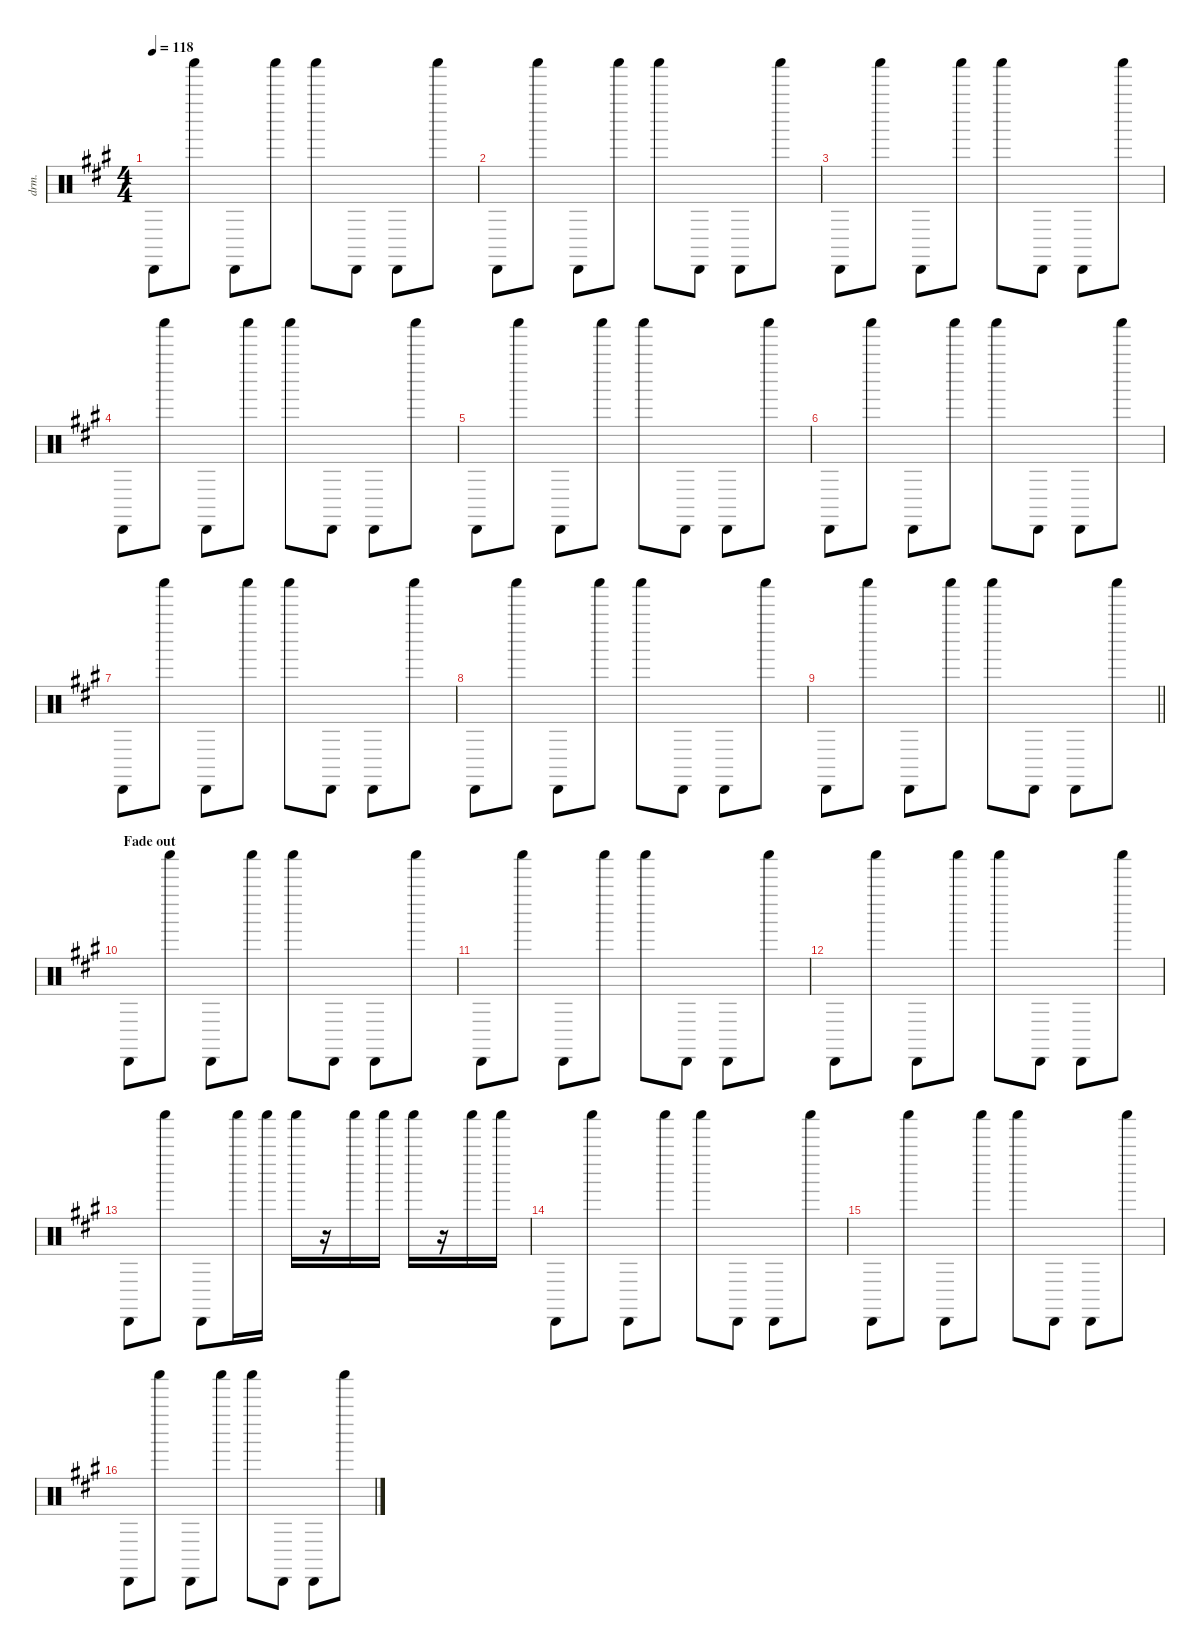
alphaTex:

\defaultSystemsLayout 4
\hideDynamics
\bracketExtendMode nobrackets
\otherSystemsTrackNameOrientation horizontal
\track ("shaker" "drm.") {instrument percussion}
\staff {score}
\articulation defaults
\ts (4 4)
\tempo 118
\clef neutral
\ks f#minor "Cabasa (hit)"{acc forcenatural}.8{dy f} "Shaker (hit)"{acc forcenatural}.8 "Cabasa (hit)"{acc forcenatural}.8{dy mp} "Shaker (hit)"{acc forcenatural}.8{dy f} "Shaker (hit)"{acc forcenatural}.8{dy p} "Cabasa (hit)"{acc forcenatural}.8{dy f} "Cabasa (hit)"{acc forcenatural}.8 "Shaker (hit)"{acc forcenatural}.8
|
"Cabasa (hit)"{acc forcenatural}.8 "Shaker (hit)"{acc forcenatural}.8 "Cabasa (hit)"{acc forcenatural}.8{dy mp} "Shaker (hit)"{acc forcenatural}.8{dy f} "Shaker (hit)"{acc forcenatural}.8{dy p} "Cabasa (hit)"{acc forcenatural}.8{dy f} "Cabasa (hit)"{acc forcenatural}.8 "Shaker (hit)"{acc forcenatural}.8 |
"Cabasa (hit)"{acc forcenatural}.8 "Shaker (hit)"{acc forcenatural}.8 "Cabasa (hit)"{acc forcenatural}.8{dy mp} "Shaker (hit)"{acc forcenatural}.8{dy f} "Shaker (hit)"{acc forcenatural}.8{dy p} "Cabasa (hit)"{acc forcenatural}.8{dy f} "Cabasa (hit)"{acc forcenatural}.8 "Shaker (hit)"{acc forcenatural}.8 |
"Cabasa (hit)"{acc forcenatural}.8 "Shaker (hit)"{acc forcenatural}.8 "Cabasa (hit)"{acc forcenatural}.8{dy mp} "Shaker (hit)"{acc forcenatural}.8{dy f} "Shaker (hit)"{acc forcenatural}.8{dy p} "Cabasa (hit)"{acc forcenatural}.8{dy f} "Cabasa (hit)"{acc forcenatural}.8 "Shaker (hit)"{acc forcenatural}.8 |
"Cabasa (hit)"{acc forcenatural}.8 "Shaker (hit)"{acc forcenatural}.8 "Cabasa (hit)"{acc forcenatural}.8{dy mp} "Shaker (hit)"{acc forcenatural}.8{dy f} "Shaker (hit)"{acc forcenatural}.8{dy p} "Cabasa (hit)"{acc forcenatural}.8{dy f} "Cabasa (hit)"{acc forcenatural}.8 "Shaker (hit)"{acc forcenatural}.8 |
"Cabasa (hit)"{acc forcenatural}.8 "Shaker (hit)"{acc forcenatural}.8 "Cabasa (hit)"{acc forcenatural}.8{dy mp} "Shaker (hit)"{acc forcenatural}.8{dy f} "Shaker (hit)"{acc forcenatural}.8{dy p} "Cabasa (hit)"{acc forcenatural}.8{dy f} "Cabasa (hit)"{acc forcenatural}.8 "Shaker (hit)"{acc forcenatural}.8 |
"Cabasa (hit)"{acc forcenatural}.8 "Shaker (hit)"{acc forcenatural}.8 "Cabasa (hit)"{acc forcenatural}.8{dy mp} "Shaker (hit)"{acc forcenatural}.8{dy f} "Shaker (hit)"{acc forcenatural}.8{dy p} "Cabasa (hit)"{acc forcenatural}.8{dy f} "Cabasa (hit)"{acc forcenatural}.8 "Shaker (hit)"{acc forcenatural}.8 |
"Cabasa (hit)"{acc forcenatural}.8 "Shaker (hit)"{acc forcenatural}.8 "Cabasa (hit)"{acc forcenatural}.8{dy mp} "Shaker (hit)"{acc forcenatural}.8{dy f} "Shaker (hit)"{acc forcenatural}.8{dy p} "Cabasa (hit)"{acc forcenatural}.8{dy f} "Cabasa (hit)"{acc forcenatural}.8 "Shaker (hit)"{acc forcenatural}.8 |
\barLineRight lightlight "Cabasa (hit)"{acc forcenatural}.8 "Shaker (hit)"{acc forcenatural}.8 "Cabasa (hit)"{acc forcenatural}.8{dy mp} "Shaker (hit)"{acc forcenatural}.8{dy f} "Shaker (hit)"{acc forcenatural}.8{dy p} "Cabasa (hit)"{acc forcenatural}.8{dy f} "Cabasa (hit)"{acc forcenatural}.8 "Shaker (hit)"{acc forcenatural}.8
|
\section ("" "Fade out")
"Cabasa (hit)"{acc forcenatural}.8 "Shaker (hit)"{acc forcenatural}.8 "Cabasa (hit)"{acc forcenatural}.8{dy mp} "Shaker (hit)"{acc forcenatural}.8{dy f} "Shaker (hit)"{acc forcenatural}.8{dy p} "Cabasa (hit)"{acc forcenatural}.8{dy f} "Cabasa (hit)"{acc forcenatural}.8 "Shaker (hit)"{acc forcenatural}.8 |
"Cabasa (hit)"{acc forcenatural}.8 "Shaker (hit)"{acc forcenatural}.8 "Cabasa (hit)"{acc forcenatural}.8{dy mp} "Shaker (hit)"{acc forcenatural}.8{dy f} "Shaker (hit)"{acc forcenatural}.8{dy p} "Cabasa (hit)"{acc forcenatural}.8{dy f} "Cabasa (hit)"{acc forcenatural}.8 "Shaker (hit)"{acc forcenatural}.8 |
"Cabasa (hit)"{acc forcenatural}.8 "Shaker (hit)"{acc forcenatural}.8 "Cabasa (hit)"{acc forcenatural}.8{dy mp} "Shaker (hit)"{acc forcenatural}.8{dy f} "Shaker (hit)"{acc forcenatural}.8{dy p} "Cabasa (hit)"{acc forcenatural}.8{dy f} "Cabasa (hit)"{acc forcenatural}.8 "Shaker (hit)"{acc forcenatural}.8 |
"Cabasa (hit)"{acc forcenatural}.8 "Shaker (hit)"{acc forcenatural}.8 "Cabasa (hit)"{acc forcenatural}.8{dy mp} "Shaker (hit)"{acc forcenatural}.16{dy mf} "Shaker (hit)"{acc forcenatural}.16{dy mp} "Shaker (hit)"{acc forcenatural}.16{dy f} r.16 "Shaker (hit)"{acc forcenatural}.16{dy mf} "Shaker (hit)"{acc forcenatural}.16{dy mp} "Shaker (hit)"{acc forcenatural}.16{dy f} r.16 "Shaker (hit)"{acc forcenatural}.16{dy mf} "Shaker (hit)"{acc forcenatural}.16{dy mp} |
"Cabasa (hit)"{acc forcenatural}.8{dy f} "Shaker (hit)"{acc forcenatural}.8 "Cabasa (hit)"{acc forcenatural}.8{dy mp} "Shaker (hit)"{acc forcenatural}.8{dy f} "Shaker (hit)"{acc forcenatural}.8{dy p} "Cabasa (hit)"{acc forcenatural}.8{dy f} "Cabasa (hit)"{acc forcenatural}.8 "Shaker (hit)"{acc forcenatural}.8 |
"Cabasa (hit)"{acc forcenatural}.8 "Shaker (hit)"{acc forcenatural}.8 "Cabasa (hit)"{acc forcenatural}.8{dy mp} "Shaker (hit)"{acc forcenatural}.8{dy f} "Shaker (hit)"{acc forcenatural}.8{dy p} "Cabasa (hit)"{acc forcenatural}.8{dy f} "Cabasa (hit)"{acc forcenatural}.8 "Shaker (hit)"{acc forcenatural}.8 |
"Cabasa (hit)"{acc forcenatural}.8 "Shaker (hit)"{acc forcenatural}.8 "Cabasa (hit)"{acc forcenatural}.8{dy mp} "Shaker (hit)"{acc forcenatural}.8{dy f} "Shaker (hit)"{acc forcenatural}.8{dy p} "Cabasa (hit)"{acc forcenatural}.8{dy f} "Cabasa (hit)"{acc forcenatural}.8 "Shaker (hit)"{acc forcenatural}.8
